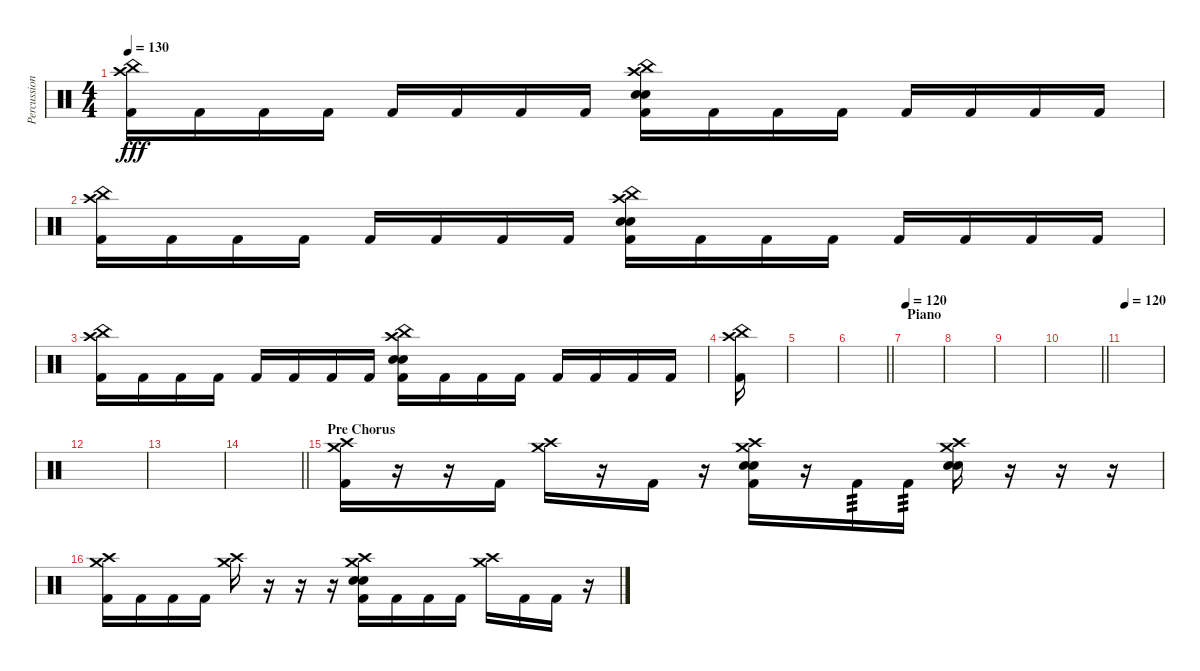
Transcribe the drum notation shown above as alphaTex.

\track ("Percussion" "Percussion") {instrument percussion}
\staff {score}
\articulation defaults
\ts (4 4)
\tempo 130
\clef neutral
\ks c
("China (hit)" "Crash high (hit)" "Kick (hit) 2").16{dy fff} "Kick (hit) 2".16 "Kick (hit) 2".16 "Kick (hit) 2".16 "Kick (hit) 2".16 "Kick (hit) 2".16 "Kick (hit) 2".16 "Kick (hit) 2".16 ("China (hit)" "Crash high (hit)" "Electric Snare (hit)" "Snare (hit) 2" "Kick (hit) 2").16 "Kick (hit) 2".16 "Kick (hit) 2".16 "Kick (hit) 2".16 "Kick (hit) 2".16 "Kick (hit) 2".16 "Kick (hit) 2".16 "Kick (hit) 2".16 |
("China (hit)" "Crash high (hit)" "Kick (hit) 2").16 "Kick (hit) 2".16 "Kick (hit) 2".16 "Kick (hit) 2".16 "Kick (hit) 2".16 "Kick (hit) 2".16 "Kick (hit) 2".16 "Kick (hit) 2".16 ("China (hit)" "Crash high (hit)" "Electric Snare (hit)" "Snare (hit) 2" "Kick (hit) 2").16 "Kick (hit) 2".16 "Kick (hit) 2".16 "Kick (hit) 2".16 "Kick (hit) 2".16 "Kick (hit) 2".16 "Kick (hit) 2".16 "Kick (hit) 2".16 |
("China (hit)" "Crash high (hit)" "Kick (hit) 2").16 "Kick (hit) 2".16 "Kick (hit) 2".16 "Kick (hit) 2".16 "Kick (hit) 2".16 "Kick (hit) 2".16 "Kick (hit) 2".16 "Kick (hit) 2".16 ("China (hit)" "Crash high (hit)" "Electric Snare (hit)" "Snare (hit) 2" "Kick (hit) 2").16 "Kick (hit) 2".16 "Kick (hit) 2".16 "Kick (hit) 2".16 "Kick (hit) 2".16 "Kick (hit) 2".16 "Kick (hit) 2".16 "Kick (hit) 2".16 |
("China (hit)" "Crash high (hit)" "Kick (hit) 2").16 |
|
\barLineRight lightlight
|
\section ("" "Piano")
\tempo 120
|
|
|
\barLineRight lightlight
|
\tempo 120
|
|
|
\barLineRight lightlight
|
\section ("" "Pre Chorus")
("Crash medium (hit)" "Crash high (hit)" "Kick (hit) 2").16 r.16 r.16 "Kick (hit) 2".16 ("Crash medium (hit)" "Crash high (hit)").16 r.16 "Kick (hit) 2".16 r.16 ("Crash medium (hit)" "Crash high (hit)" "Snare (hit) 2" "Electric Snare (hit)" "Kick (hit) 2").16 r.16 "Kick (hit) 2".16{tp 3} "Kick (hit) 2".16{tp 3} ("Crash medium (hit)" "Crash high (hit)" "Snare (hit) 2" "Electric Snare (hit)").16 r.16 r.16 r.16 |
("Crash high (hit)" "Crash medium (hit)" "Kick (hit) 2").16 "Kick (hit) 2".16 "Kick (hit) 2".16 "Kick (hit) 2".16 ("Crash high (hit)" "Crash medium (hit)").16 r.16 r.16 r.16 ("Crash high (hit)" "Crash medium (hit)" "Electric Snare (hit)" "Snare (hit) 2" "Kick (hit) 2").16 "Kick (hit) 2".16 "Kick (hit) 2".16 "Kick (hit) 2".16 ("Crash high (hit)" "Crash medium (hit)").16 "Kick (hit) 2".16 "Kick (hit) 2".16 r.16
